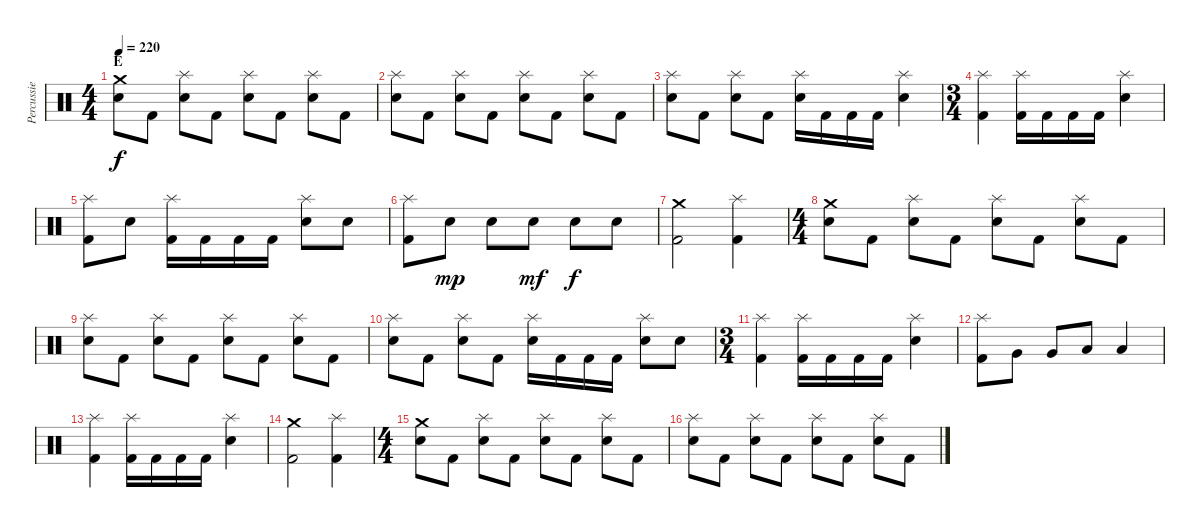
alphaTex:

\track ("Percussie" "Percussie") {instrument percussion}
\staff {score}
\articulation defaults
\ts (4 4)
\section ("" "E")
\tempo 220
\clef neutral
\ks c
("Crash medium (hit)" "Electric Snare (hit)").8{dy f} "Kick (hit) 2".8 ("Splash (hit)" "Electric Snare (hit)").8 "Kick (hit) 2".8 ("Splash (hit)" "Electric Snare (hit)").8 "Kick (hit) 2".8 ("Splash (hit)" "Electric Snare (hit)").8 "Kick (hit) 2".8 |
("Splash (hit)" "Electric Snare (hit)").8 "Kick (hit) 2".8 ("Splash (hit)" "Electric Snare (hit)").8 "Kick (hit) 2".8 ("Splash (hit)" "Electric Snare (hit)").8 "Kick (hit) 2".8 ("Splash (hit)" "Electric Snare (hit)").8 "Kick (hit) 2".8 |
("Splash (hit)" "Electric Snare (hit)").8 "Kick (hit) 2".8 ("Splash (hit)" "Electric Snare (hit)").8 "Kick (hit) 2".8 ("Splash (hit)" "Electric Snare (hit)").16 "Kick (hit) 2".16 "Kick (hit) 2".16 "Kick (hit) 2".16 ("Splash (hit)" "Electric Snare (hit)").4 |
\ts (3 4)
("Splash (hit)" "Kick (hit) 2").4 ("Splash (hit)" "Kick (hit) 2").16 "Kick (hit) 2".16 "Kick (hit) 2".16 "Kick (hit) 2".16 ("Splash (hit)" "Electric Snare (hit)").4 |
("Splash (hit)" "Kick (hit) 2").8 "Electric Snare (hit)".8 ("Splash (hit)" "Kick (hit) 2").16 "Kick (hit) 2".16 "Kick (hit) 2".16 "Kick (hit) 2".16 ("Splash (hit)" "Electric Snare (hit)").8 "Electric Snare (hit)".8 |
("Splash (hit)" "Kick (hit) 2").8 "Electric Snare (hit)".8{dy mp} "Electric Snare (hit)".8 "Electric Snare (hit)".8{dy mf} "Electric Snare (hit)".8{dy f} "Electric Snare (hit)".8 |
("Crash medium (hit)" "Kick (hit) 2").2 ("Splash (hit)" "Kick (hit) 2").4 |
\ts (4 4)
("Crash medium (hit)" "Electric Snare (hit)").8 "Kick (hit) 2".8 ("Splash (hit)" "Electric Snare (hit)").8 "Kick (hit) 2".8 ("Splash (hit)" "Electric Snare (hit)").8 "Kick (hit) 2".8 ("Splash (hit)" "Electric Snare (hit)").8 "Kick (hit) 2".8 |
("Splash (hit)" "Electric Snare (hit)").8 "Kick (hit) 2".8 ("Splash (hit)" "Electric Snare (hit)").8 "Kick (hit) 2".8 ("Splash (hit)" "Electric Snare (hit)").8 "Kick (hit) 2".8 ("Splash (hit)" "Electric Snare (hit)").8 "Kick (hit) 2".8 |
("Splash (hit)" "Electric Snare (hit)").8 "Kick (hit) 2".8 ("Splash (hit)" "Electric Snare (hit)").8 "Kick (hit) 2".8 ("Splash (hit)" "Electric Snare (hit)").16 "Kick (hit) 2".16 "Kick (hit) 2".16 "Kick (hit) 2".16 ("Splash (hit)" "Electric Snare (hit)").8 "Electric Snare (hit)".8 |
\ts (3 4)
("Splash (hit)" "Kick (hit) 2").4 ("Splash (hit)" "Kick (hit) 2").16 "Kick (hit) 2".16 "Kick (hit) 2".16 "Kick (hit) 2".16 ("Splash (hit)" "Electric Snare (hit)").4 |
("Splash (hit)" "Kick (hit) 2").8 "Very Low Tom (hit)".8 "Very Low Tom (hit)".8 "Low Floor Tom (hit)".8 "Low Floor Tom (hit)".4 |
("Splash (hit)" "Kick (hit) 2").4 ("Splash (hit)" "Kick (hit) 2").16 "Kick (hit) 2".16 "Kick (hit) 2".16 "Kick (hit) 2".16 ("Splash (hit)" "Electric Snare (hit)").4 |
("Crash medium (hit)" "Kick (hit) 2").2 ("Splash (hit)" "Kick (hit) 2").4 |
\ts (4 4)
("Crash medium (hit)" "Electric Snare (hit)").8 "Kick (hit) 2".8 ("Splash (hit)" "Electric Snare (hit)").8 "Kick (hit) 2".8 ("Splash (hit)" "Electric Snare (hit)").8 "Kick (hit) 2".8 ("Splash (hit)" "Electric Snare (hit)").8 "Kick (hit) 2".8 |
("Splash (hit)" "Electric Snare (hit)").8 "Kick (hit) 2".8 ("Splash (hit)" "Electric Snare (hit)").8 "Kick (hit) 2".8 ("Splash (hit)" "Electric Snare (hit)").8 "Kick (hit) 2".8 ("Splash (hit)" "Electric Snare (hit)").8 "Kick (hit) 2".8
